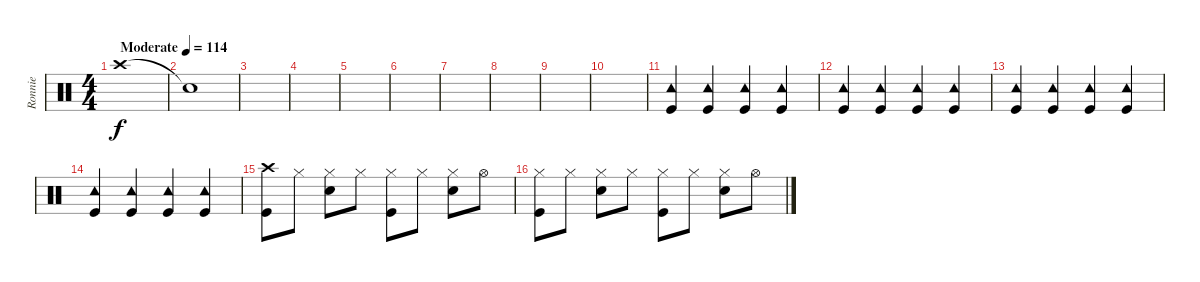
\track ("Ronnie" "Ronnie") {instrument percussion}
\staff {score}
\articulation defaults
\ts (4 4)
\tempo (114 "Moderate")
\clef neutral
\ks c "Crash high (hit)".1{dy f}
|
"Snare (hit)"{t}.1 |
|
|
|
|
|
|
|
|
("Tambourine (hit)" "Kick (hit)").4 ("Tambourine (hit)" "Kick (hit)").4 ("Tambourine (hit)" "Kick (hit)").4 ("Tambourine (hit)" "Kick (hit)").4 |
("Tambourine (hit)" "Kick (hit)").4 ("Tambourine (hit)" "Kick (hit)").4 ("Tambourine (hit)" "Kick (hit)").4 ("Tambourine (hit)" "Kick (hit)").4 |
("Tambourine (hit)" "Kick (hit)").4 ("Tambourine (hit)" "Kick (hit)").4 ("Tambourine (hit)" "Kick (hit)").4 ("Tambourine (hit)" "Kick (hit)").4 |
("Tambourine (hit)" "Kick (hit)").4 ("Tambourine (hit)" "Kick (hit)").4 ("Tambourine (hit)" "Kick (hit)").4 ("Tambourine (hit)" "Kick (hit)").4 |
("Crash high (hit)" "Kick (hit)").8 "Hi-Hat (closed)".8 ("Hi-Hat (closed)" "Electric Snare (hit)").8 "Hi-Hat (closed)".8 ("Hi-Hat (closed)" "Kick (hit)").8 "Hi-Hat (closed)".8 ("Hi-Hat (closed)" "Electric Snare (hit)").8 "Hi-Hat (open)".8 |
("Hi-Hat (closed)" "Kick (hit)").8 "Hi-Hat (closed)".8 ("Hi-Hat (closed)" "Electric Snare (hit)").8 "Hi-Hat (closed)".8 ("Hi-Hat (closed)" "Kick (hit)").8 "Hi-Hat (closed)".8 ("Hi-Hat (closed)" "Electric Snare (hit)").8 "Hi-Hat (open)".8
